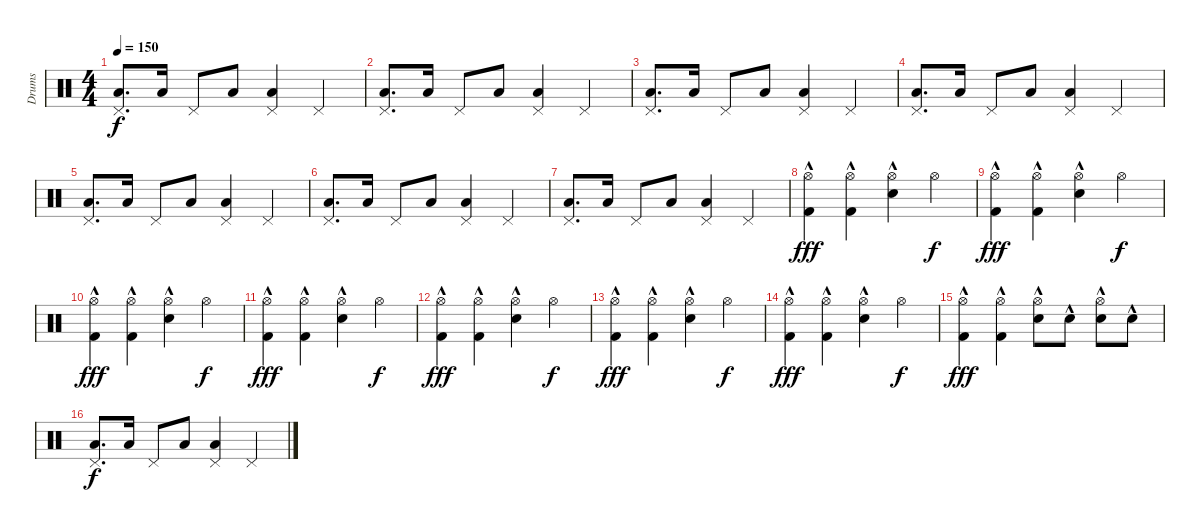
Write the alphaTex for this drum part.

\track ("Drums" "Drums") {instrument percussion}
\staff {score}
\articulation defaults
\ts (4 4)
\tempo 150
\clef neutral
\ks c
("Pedal Hi-Hat (hit)" "Low Floor Tom (hit)").8{d dy f} "Low Floor Tom (hit)".16 "Pedal Hi-Hat (hit)".8 "Low Floor Tom (hit)".8 ("Pedal Hi-Hat (hit)" "Low Floor Tom (hit)").4 "Pedal Hi-Hat (hit)".4 |
("Pedal Hi-Hat (hit)" "Low Floor Tom (hit)").8{d} "Low Floor Tom (hit)".16 "Pedal Hi-Hat (hit)".8 "Low Floor Tom (hit)".8 ("Pedal Hi-Hat (hit)" "Low Floor Tom (hit)").4 "Pedal Hi-Hat (hit)".4 |
("Pedal Hi-Hat (hit)" "Low Floor Tom (hit)").8{d} "Low Floor Tom (hit)".16 "Pedal Hi-Hat (hit)".8 "Low Floor Tom (hit)".8 ("Pedal Hi-Hat (hit)" "Low Floor Tom (hit)").4 "Pedal Hi-Hat (hit)".4 |
("Pedal Hi-Hat (hit)" "Low Floor Tom (hit)").8{d} "Low Floor Tom (hit)".16 "Pedal Hi-Hat (hit)".8 "Low Floor Tom (hit)".8 ("Pedal Hi-Hat (hit)" "Low Floor Tom (hit)").4 "Pedal Hi-Hat (hit)".4 |
("Pedal Hi-Hat (hit)" "Low Floor Tom (hit)").8{d} "Low Floor Tom (hit)".16 "Pedal Hi-Hat (hit)".8 "Low Floor Tom (hit)".8 ("Pedal Hi-Hat (hit)" "Low Floor Tom (hit)").4 "Pedal Hi-Hat (hit)".4 |
("Pedal Hi-Hat (hit)" "Low Floor Tom (hit)").8{d} "Low Floor Tom (hit)".16 "Pedal Hi-Hat (hit)".8 "Low Floor Tom (hit)".8 ("Pedal Hi-Hat (hit)" "Low Floor Tom (hit)").4 "Pedal Hi-Hat (hit)".4 |
("Pedal Hi-Hat (hit)" "Low Floor Tom (hit)").8{d} "Low Floor Tom (hit)".16 "Pedal Hi-Hat (hit)".8 "Low Floor Tom (hit)".8 ("Pedal Hi-Hat (hit)" "Low Floor Tom (hit)").4 "Pedal Hi-Hat (hit)".4 |
("Hi-Hat (open)" "Kick (hit) 2"{hac}).4{dy fff} ("Hi-Hat (open)" "Kick (hit) 2"{hac}).4 ("Hi-Hat (open)" "Electric Snare (hit)"{hac}).4 "Hi-Hat (open)".4{dy f} |
("Hi-Hat (open)" "Kick (hit) 2"{hac}).4{dy fff} ("Hi-Hat (open)" "Kick (hit) 2"{hac}).4 ("Hi-Hat (open)" "Electric Snare (hit)"{hac}).4 "Hi-Hat (open)".4{dy f} |
("Hi-Hat (open)" "Kick (hit) 2"{hac}).4{dy fff} ("Hi-Hat (open)" "Kick (hit) 2"{hac}).4 ("Hi-Hat (open)" "Electric Snare (hit)"{hac}).4 "Hi-Hat (open)".4{dy f} |
("Hi-Hat (open)" "Kick (hit) 2"{hac}).4{dy fff} ("Hi-Hat (open)" "Kick (hit) 2"{hac}).4 ("Hi-Hat (open)" "Electric Snare (hit)"{hac}).4 "Hi-Hat (open)".4{dy f} |
("Hi-Hat (open)" "Kick (hit) 2"{hac}).4{dy fff} ("Hi-Hat (open)" "Kick (hit) 2"{hac}).4 ("Hi-Hat (open)" "Electric Snare (hit)"{hac}).4 "Hi-Hat (open)".4{dy f} |
("Hi-Hat (open)" "Kick (hit) 2"{hac}).4{dy fff} ("Hi-Hat (open)" "Kick (hit) 2"{hac}).4 ("Hi-Hat (open)" "Electric Snare (hit)"{hac}).4 "Hi-Hat (open)".4{dy f} |
("Hi-Hat (open)" "Kick (hit) 2"{hac}).4{dy fff} ("Hi-Hat (open)" "Kick (hit) 2"{hac}).4 ("Hi-Hat (open)" "Electric Snare (hit)"{hac}).4 "Hi-Hat (open)".4{dy f} |
("Hi-Hat (open)" "Kick (hit) 2"{hac}).4{dy fff} ("Hi-Hat (open)" "Kick (hit) 2"{hac}).4 ("Hi-Hat (open)" "Electric Snare (hit)"{hac}).8 "Electric Snare (hit)"{hac}.8 ("Hi-Hat (open)" "Electric Snare (hit)"{hac}).8 "Electric Snare (hit)"{hac}.8 |
("Pedal Hi-Hat (hit)" "Low Floor Tom (hit)").8{d dy f} "Low Floor Tom (hit)".16 "Pedal Hi-Hat (hit)".8 "Low Floor Tom (hit)".8 ("Pedal Hi-Hat (hit)" "Low Floor Tom (hit)").4 "Pedal Hi-Hat (hit)".4
